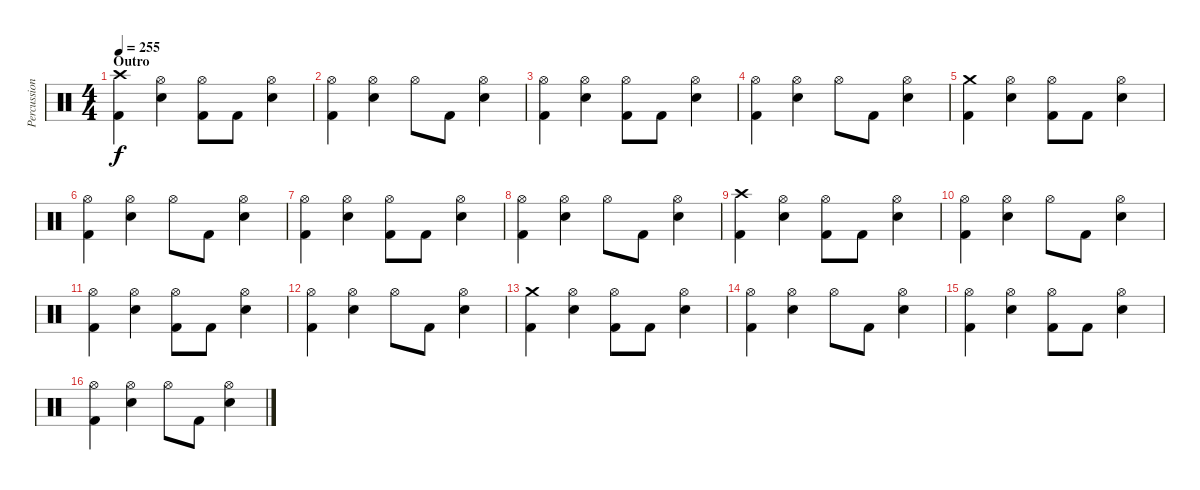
\track ("Percussion" "Percussion") {instrument percussion}
\staff {score}
\articulation defaults
\ts (4 4)
\section ("" "Outro")
\tempo 255
\clef neutral
\ks c
("Crash high (hit)" "Kick (hit) 2").4{dy f} ("Hi-Hat (open)" "Electric Snare (hit)").4 ("Hi-Hat (open)" "Kick (hit) 2").8 "Kick (hit) 2".8 ("Hi-Hat (open)" "Electric Snare (hit)").4 |
("Hi-Hat (open)" "Kick (hit) 2").4 ("Hi-Hat (open)" "Electric Snare (hit)").4 "Hi-Hat (open)".8 "Kick (hit) 2".8 ("Hi-Hat (open)" "Electric Snare (hit)").4 |
("Hi-Hat (open)" "Kick (hit) 2").4 ("Hi-Hat (open)" "Electric Snare (hit)").4 ("Hi-Hat (open)" "Kick (hit) 2").8 "Kick (hit) 2".8 ("Hi-Hat (open)" "Electric Snare (hit)").4 |
("Hi-Hat (open)" "Kick (hit) 2").4 ("Hi-Hat (open)" "Electric Snare (hit)").4 "Hi-Hat (open)".8 "Kick (hit) 2".8 ("Hi-Hat (open)" "Electric Snare (hit)").4 |
("Crash medium (hit)" "Kick (hit) 2").4 ("Hi-Hat (open)" "Electric Snare (hit)").4 ("Hi-Hat (open)" "Kick (hit) 2").8 "Kick (hit) 2".8 ("Hi-Hat (open)" "Electric Snare (hit)").4 |
("Hi-Hat (open)" "Kick (hit) 2").4 ("Hi-Hat (open)" "Electric Snare (hit)").4 "Hi-Hat (open)".8 "Kick (hit) 2".8 ("Hi-Hat (open)" "Electric Snare (hit)").4 |
("Hi-Hat (open)" "Kick (hit) 2").4 ("Hi-Hat (open)" "Electric Snare (hit)").4 ("Hi-Hat (open)" "Kick (hit) 2").8 "Kick (hit) 2".8 ("Hi-Hat (open)" "Electric Snare (hit)").4 |
("Hi-Hat (open)" "Kick (hit) 2").4 ("Hi-Hat (open)" "Electric Snare (hit)").4 "Hi-Hat (open)".8 "Kick (hit) 2".8 ("Hi-Hat (open)" "Electric Snare (hit)").4 |
("Crash high (hit)" "Kick (hit) 2").4 ("Hi-Hat (open)" "Electric Snare (hit)").4 ("Hi-Hat (open)" "Kick (hit) 2").8 "Kick (hit) 2".8 ("Hi-Hat (open)" "Electric Snare (hit)").4 |
("Hi-Hat (open)" "Kick (hit) 2").4 ("Hi-Hat (open)" "Electric Snare (hit)").4 "Hi-Hat (open)".8 "Kick (hit) 2".8 ("Hi-Hat (open)" "Electric Snare (hit)").4 |
("Hi-Hat (open)" "Kick (hit) 2").4 ("Hi-Hat (open)" "Electric Snare (hit)").4 ("Hi-Hat (open)" "Kick (hit) 2").8 "Kick (hit) 2".8 ("Hi-Hat (open)" "Electric Snare (hit)").4 |
("Hi-Hat (open)" "Kick (hit) 2").4 ("Hi-Hat (open)" "Electric Snare (hit)").4 "Hi-Hat (open)".8 "Kick (hit) 2".8 ("Hi-Hat (open)" "Electric Snare (hit)").4 |
("Crash medium (hit)" "Kick (hit) 2").4 ("Hi-Hat (open)" "Electric Snare (hit)").4 ("Hi-Hat (open)" "Kick (hit) 2").8 "Kick (hit) 2".8 ("Hi-Hat (open)" "Electric Snare (hit)").4 |
("Hi-Hat (open)" "Kick (hit) 2").4 ("Hi-Hat (open)" "Electric Snare (hit)").4 "Hi-Hat (open)".8 "Kick (hit) 2".8 ("Hi-Hat (open)" "Electric Snare (hit)").4 |
("Hi-Hat (open)" "Kick (hit) 2").4 ("Hi-Hat (open)" "Electric Snare (hit)").4 ("Hi-Hat (open)" "Kick (hit) 2").8 "Kick (hit) 2".8 ("Hi-Hat (open)" "Electric Snare (hit)").4 |
("Hi-Hat (open)" "Kick (hit) 2").4 ("Hi-Hat (open)" "Electric Snare (hit)").4 "Hi-Hat (open)".8 "Kick (hit) 2".8 ("Hi-Hat (open)" "Electric Snare (hit)").4
